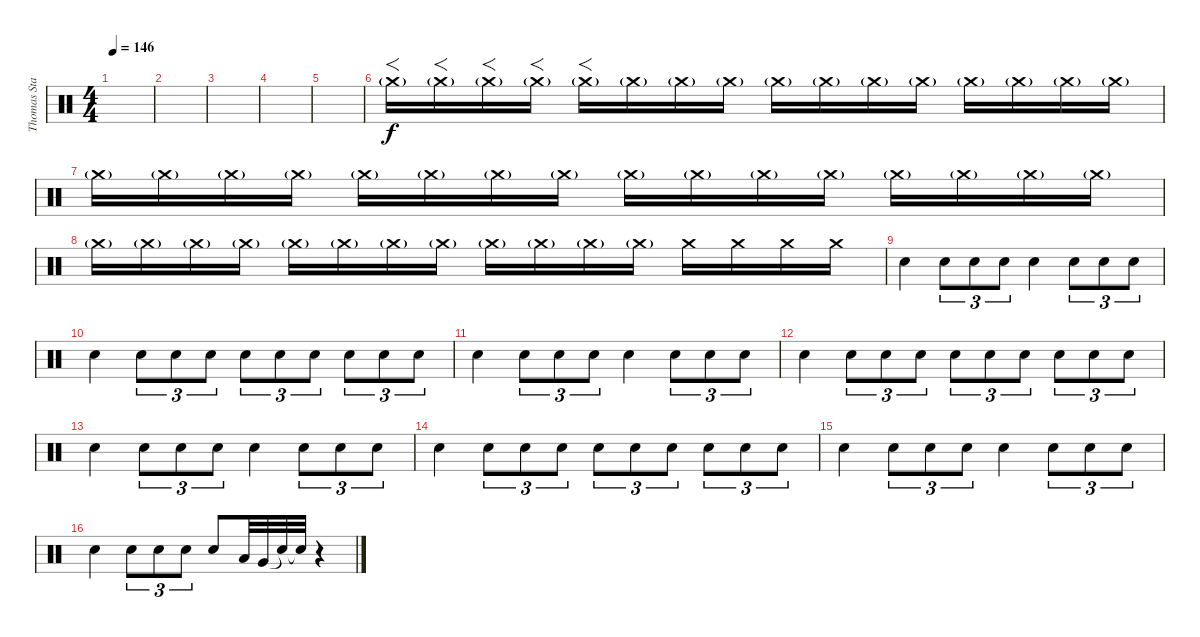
\track ("Thomas Stauch" "Thomas Sta") {instrument percussion}
\staff {score}
\articulation defaults
\ts (4 4)
\tempo 146
\clef neutral
\ks c
|
|
|
|
|
"Crash medium (hit)"{g}.16{f} "Crash medium (hit)"{g}.16{f} "Crash medium (hit)"{g}.16{f} "Crash medium (hit)"{g}.16{f} "Crash medium (hit)"{g}.16{f} "Crash medium (hit)"{g}.16 "Crash medium (hit)"{g}.16 "Crash medium (hit)"{g}.16 "Crash medium (hit)"{g}.16 "Crash medium (hit)"{g}.16 "Crash medium (hit)"{g}.16 "Crash medium (hit)"{g}.16 "Crash medium (hit)"{g}.16 "Crash medium (hit)"{g}.16 "Crash medium (hit)"{g}.16 "Crash medium (hit)"{g}.16 |
"Crash medium (hit)"{g}.16 "Crash medium (hit)"{g}.16 "Crash medium (hit)"{g}.16 "Crash medium (hit)"{g}.16 "Crash medium (hit)"{g}.16 "Crash medium (hit)"{g}.16 "Crash medium (hit)"{g}.16 "Crash medium (hit)"{g}.16 "Crash medium (hit)"{g}.16 "Crash medium (hit)"{g}.16 "Crash medium (hit)"{g}.16 "Crash medium (hit)"{g}.16 "Crash medium (hit)"{g}.16 "Crash medium (hit)"{g}.16 "Crash medium (hit)"{g}.16 "Crash medium (hit)"{g}.16 |
"Crash medium (hit)"{g}.16 "Crash medium (hit)"{g}.16 "Crash medium (hit)"{g}.16 "Crash medium (hit)"{g}.16 "Crash medium (hit)"{g}.16 "Crash medium (hit)"{g}.16 "Crash medium (hit)"{g}.16 "Crash medium (hit)"{g}.16 "Crash medium (hit)"{g}.16 "Crash medium (hit)"{g}.16 "Crash medium (hit)"{g}.16 "Crash medium (hit)"{g}.16 "Crash medium (hit)".16{dy f} "Crash medium (hit)".16 "Crash medium (hit)".16 "Crash medium (hit)".16 |
"Electric Snare (hit)".4 "Electric Snare (hit)".8{tu (3 2)} "Electric Snare (hit)".8{tu (3 2)} "Electric Snare (hit)".8{tu (3 2)} "Electric Snare (hit)".4 "Electric Snare (hit)".8{tu (3 2)} "Electric Snare (hit)".8{tu (3 2)} "Electric Snare (hit)".8{tu (3 2)} |
"Electric Snare (hit)".4 "Electric Snare (hit)".8{tu (3 2)} "Electric Snare (hit)".8{tu (3 2)} "Electric Snare (hit)".8{tu (3 2)} "Electric Snare (hit)".8{tu (3 2)} "Electric Snare (hit)".8{tu (3 2)} "Electric Snare (hit)".8{tu (3 2)} "Electric Snare (hit)".8{tu (3 2)} "Electric Snare (hit)".8{tu (3 2)} "Electric Snare (hit)".8{tu (3 2)} |
"Electric Snare (hit)".4 "Electric Snare (hit)".8{tu (3 2)} "Electric Snare (hit)".8{tu (3 2)} "Electric Snare (hit)".8{tu (3 2)} "Electric Snare (hit)".4 "Electric Snare (hit)".8{tu (3 2)} "Electric Snare (hit)".8{tu (3 2)} "Electric Snare (hit)".8{tu (3 2)} |
"Electric Snare (hit)".4 "Electric Snare (hit)".8{tu (3 2)} "Electric Snare (hit)".8{tu (3 2)} "Electric Snare (hit)".8{tu (3 2)} "Electric Snare (hit)".8{tu (3 2)} "Electric Snare (hit)".8{tu (3 2)} "Electric Snare (hit)".8{tu (3 2)} "Electric Snare (hit)".8{tu (3 2)} "Electric Snare (hit)".8{tu (3 2)} "Electric Snare (hit)".8{tu (3 2)} |
"Electric Snare (hit)".4 "Electric Snare (hit)".8{tu (3 2)} "Electric Snare (hit)".8{tu (3 2)} "Electric Snare (hit)".8{tu (3 2)} "Electric Snare (hit)".4 "Electric Snare (hit)".8{tu (3 2)} "Electric Snare (hit)".8{tu (3 2)} "Electric Snare (hit)".8{tu (3 2)} |
"Electric Snare (hit)".4 "Electric Snare (hit)".8{tu (3 2)} "Electric Snare (hit)".8{tu (3 2)} "Electric Snare (hit)".8{tu (3 2)} "Electric Snare (hit)".8{tu (3 2)} "Electric Snare (hit)".8{tu (3 2)} "Electric Snare (hit)".8{tu (3 2)} "Electric Snare (hit)".8{tu (3 2)} "Electric Snare (hit)".8{tu (3 2)} "Electric Snare (hit)".8{tu (3 2)} |
"Electric Snare (hit)".4 "Electric Snare (hit)".8{tu (3 2)} "Electric Snare (hit)".8{tu (3 2)} "Electric Snare (hit)".8{tu (3 2)} "Electric Snare (hit)".4 "Electric Snare (hit)".8{tu (3 2)} "Electric Snare (hit)".8{tu (3 2)} "Electric Snare (hit)".8{tu (3 2)} |
"Electric Snare (hit)".4 "Electric Snare (hit)".8{tu (3 2)} "Electric Snare (hit)".8{tu (3 2)} "Electric Snare (hit)".8{tu (3 2)} "Electric Snare (hit)".8 "Low Tom (hit)".32 "Very Low Tom (hit)".32 "Snare (hit)"{t}.32 "Snare (hit)"{t}.32 r.4
